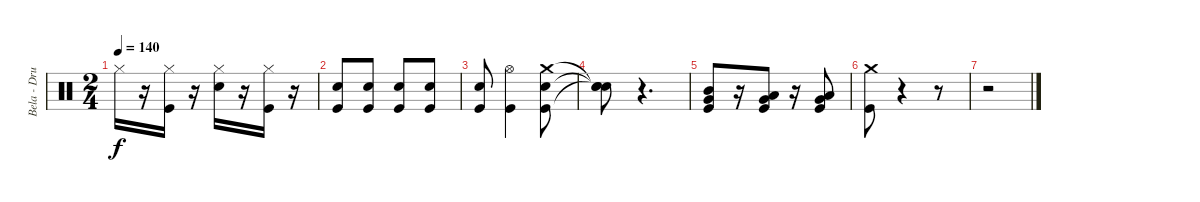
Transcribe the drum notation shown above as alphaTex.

\track ("Bela - Drums" "Bela - Dru") {instrument percussion}
\staff {score}
\articulation defaults
\ts (2 4)
\tempo 140
\clef neutral
\ks c "Hi-Hat (closed)".16{dy f}
r.16 ("Kick (hit)" "Hi-Hat (closed)").16 r.16 ("Electric Snare (hit)" "Hi-Hat (closed)").16 r.16 ("Kick (hit)" "Hi-Hat (closed)").16 r.16 |
("Kick (hit)" "Electric Snare (hit)").8 ("Kick (hit)" "Electric Snare (hit)").8 ("Kick (hit)" "Electric Snare (hit)").8 ("Kick (hit)" "Electric Snare (hit)").8 |
("Kick (hit)" "Electric Snare (hit)").8 ("Kick (hit)" "Hi-Hat (open)").4 ("Kick (hit)" "Electric Snare (hit)" "Crash medium (hit)").8 |
("Snare (hit)"{t} "Snare (hit)"{t} "Snare (hit)"{t}).8 r.4{d} |
("Kick (hit)" "Very Low Tom (hit)" "Mid Tom (hit)").8 r.16 ("Very Low Tom (hit)" "Kick (hit)" "Low Tom (hit)").8 r.16 ("Low Floor Tom (hit)" "Kick (hit)" "Very Low Tom (hit)").8 |
("Kick (hit)" "Crash medium (hit)").8 r.4 r.8 |
r.2
